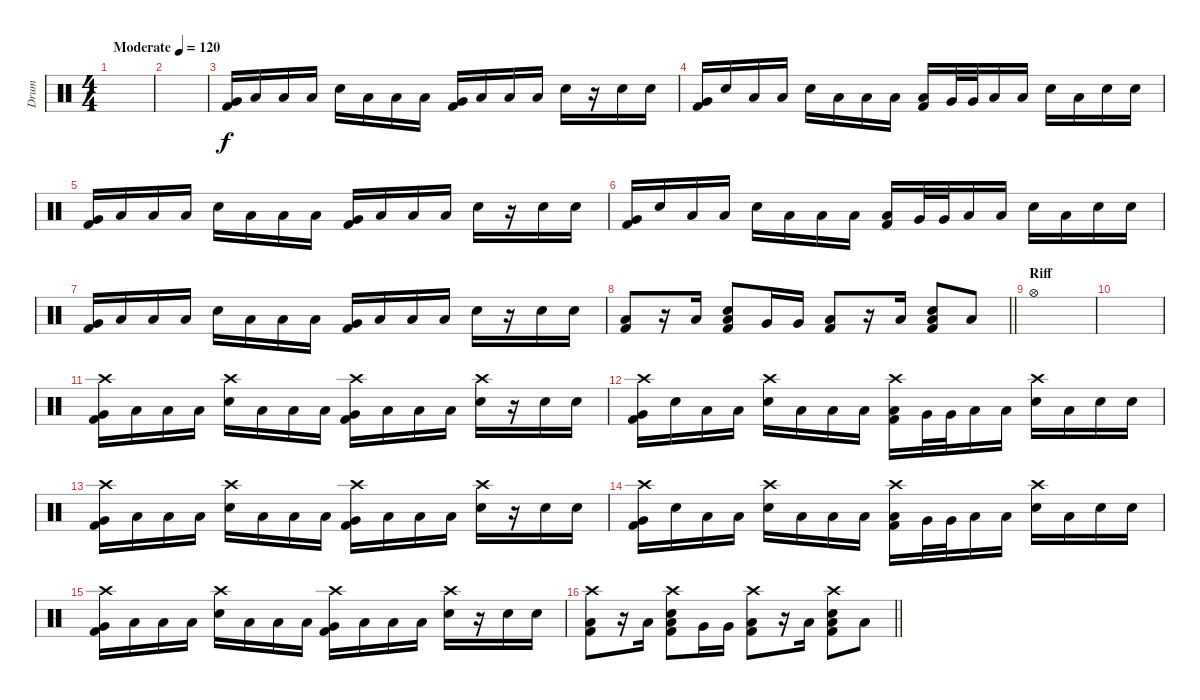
\track ("Drum" "Drum") {instrument percussion}
\staff {score}
\articulation defaults
\ts (4 4)
\tempo (120 "Moderate")
\clef neutral
\ks c
|
|
("Very Low Tom (hit)" "Kick (hit) 2").16 "Low Floor Tom (hit)".16 "Low Floor Tom (hit)".16 "Low Floor Tom (hit)".16 "Snare (hit) 2".16 "Low Floor Tom (hit)".16 "Low Floor Tom (hit)".16 "Low Floor Tom (hit)".16 ("Very Low Tom (hit)" "Kick (hit) 2").16 "Low Floor Tom (hit)".16 "Low Floor Tom (hit)".16 "Low Floor Tom (hit)".16 "Snare (hit) 2".16 r.16 "Snare (hit) 2".16 "Snare (hit) 2".16 |
("Very Low Tom (hit)" "Kick (hit) 2").16 "Snare (hit) 2".16 "Low Floor Tom (hit)".16 "Low Floor Tom (hit)".16 "Snare (hit) 2".16 "Low Floor Tom (hit)".16 "Low Floor Tom (hit)".16 "Low Floor Tom (hit)".16 ("Low Floor Tom (hit)" "Kick (hit) 2").16 "Very Low Tom (hit)".32 "Very Low Tom (hit)".32 "Low Floor Tom (hit)".16 "Low Floor Tom (hit)".16 "Snare (hit) 2".16 "Low Floor Tom (hit)".16 "Snare (hit) 2".16 "Snare (hit) 2".16 |
("Very Low Tom (hit)" "Kick (hit) 2").16 "Low Floor Tom (hit)".16 "Low Floor Tom (hit)".16 "Low Floor Tom (hit)".16 "Snare (hit) 2".16 "Low Floor Tom (hit)".16 "Low Floor Tom (hit)".16 "Low Floor Tom (hit)".16 ("Very Low Tom (hit)" "Kick (hit) 2").16 "Low Floor Tom (hit)".16 "Low Floor Tom (hit)".16 "Low Floor Tom (hit)".16 "Snare (hit) 2".16 r.16 "Snare (hit) 2".16 "Snare (hit) 2".16 |
("Very Low Tom (hit)" "Kick (hit) 2").16 "Snare (hit) 2".16 "Low Floor Tom (hit)".16 "Low Floor Tom (hit)".16 "Snare (hit) 2".16 "Low Floor Tom (hit)".16 "Low Floor Tom (hit)".16 "Low Floor Tom (hit)".16 ("Low Floor Tom (hit)" "Kick (hit) 2").16 "Very Low Tom (hit)".32 "Very Low Tom (hit)".32 "Low Floor Tom (hit)".16 "Low Floor Tom (hit)".16 "Snare (hit) 2".16 "Low Floor Tom (hit)".16 "Snare (hit) 2".16 "Snare (hit) 2".16 |
("Very Low Tom (hit)" "Kick (hit) 2").16 "Low Floor Tom (hit)".16 "Low Floor Tom (hit)".16 "Low Floor Tom (hit)".16 "Snare (hit) 2".16 "Low Floor Tom (hit)".16 "Low Floor Tom (hit)".16 "Low Floor Tom (hit)".16 ("Very Low Tom (hit)" "Kick (hit) 2").16 "Low Floor Tom (hit)".16 "Low Floor Tom (hit)".16 "Low Floor Tom (hit)".16 "Snare (hit) 2".16 r.16 "Snare (hit) 2".16 "Snare (hit) 2".16 |
\barLineRight lightlight
("Low Floor Tom (hit)" "Kick (hit) 2").8 r.16 "Low Floor Tom (hit)".16 ("Snare (hit) 2" "Low Tom (hit)" "Kick (hit) 2").8 "Very Low Tom (hit)".16 "Very Low Tom (hit)".16 ("Low Floor Tom (hit)" "Kick (hit) 2").8 r.16 "Low Floor Tom (hit)".16 ("Snare (hit) 2" "Low Tom (hit)" "Kick (hit) 2").8 "Low Floor Tom (hit)".8 |
\section ("" "Riff")
"Hi-Hat (open)".1 |
|
("Crash high (hit)" "Very Low Tom (hit)" "Kick (hit) 2").16 "Low Floor Tom (hit)".16 "Low Floor Tom (hit)".16 "Low Floor Tom (hit)".16 ("Crash high (hit)" "Snare (hit) 2").16 "Low Floor Tom (hit)".16 "Low Floor Tom (hit)".16 "Low Floor Tom (hit)".16 ("Crash high (hit)" "Very Low Tom (hit)" "Kick (hit) 2").16 "Low Floor Tom (hit)".16 "Low Floor Tom (hit)".16 "Low Floor Tom (hit)".16 ("Crash high (hit)" "Snare (hit) 2").16 r.16 "Snare (hit) 2".16 "Snare (hit) 2".16 |
("Crash high (hit)" "Very Low Tom (hit)" "Kick (hit) 2").16 "Snare (hit) 2".16 "Low Floor Tom (hit)".16 "Low Floor Tom (hit)".16 ("Crash high (hit)" "Snare (hit) 2").16 "Low Floor Tom (hit)".16 "Low Floor Tom (hit)".16 "Low Floor Tom (hit)".16 ("Crash high (hit)" "Low Floor Tom (hit)" "Kick (hit) 2").16 "Very Low Tom (hit)".32 "Very Low Tom (hit)".32 "Low Floor Tom (hit)".16 "Low Floor Tom (hit)".16 ("Crash high (hit)" "Snare (hit) 2").16 "Low Floor Tom (hit)".16 "Snare (hit) 2".16 "Snare (hit) 2".16 |
("Crash high (hit)" "Very Low Tom (hit)" "Kick (hit) 2").16 "Low Floor Tom (hit)".16 "Low Floor Tom (hit)".16 "Low Floor Tom (hit)".16 ("Crash high (hit)" "Snare (hit) 2").16 "Low Floor Tom (hit)".16 "Low Floor Tom (hit)".16 "Low Floor Tom (hit)".16 ("Crash high (hit)" "Very Low Tom (hit)" "Kick (hit) 2").16 "Low Floor Tom (hit)".16 "Low Floor Tom (hit)".16 "Low Floor Tom (hit)".16 ("Crash high (hit)" "Snare (hit) 2").16 r.16 "Snare (hit) 2".16 "Snare (hit) 2".16 |
("Crash high (hit)" "Very Low Tom (hit)" "Kick (hit) 2").16 "Snare (hit) 2".16 "Low Floor Tom (hit)".16 "Low Floor Tom (hit)".16 ("Crash high (hit)" "Snare (hit) 2").16 "Low Floor Tom (hit)".16 "Low Floor Tom (hit)".16 "Low Floor Tom (hit)".16 ("Crash high (hit)" "Low Floor Tom (hit)" "Kick (hit) 2").16 "Very Low Tom (hit)".32 "Very Low Tom (hit)".32 "Low Floor Tom (hit)".16 "Low Floor Tom (hit)".16 ("Crash high (hit)" "Snare (hit) 2").16 "Low Floor Tom (hit)".16 "Snare (hit) 2".16 "Snare (hit) 2".16 |
("Crash high (hit)" "Very Low Tom (hit)" "Kick (hit) 2").16 "Low Floor Tom (hit)".16 "Low Floor Tom (hit)".16 "Low Floor Tom (hit)".16 ("Crash high (hit)" "Snare (hit) 2").16 "Low Floor Tom (hit)".16 "Low Floor Tom (hit)".16 "Low Floor Tom (hit)".16 ("Crash high (hit)" "Very Low Tom (hit)" "Kick (hit) 2").16 "Low Floor Tom (hit)".16 "Low Floor Tom (hit)".16 "Low Floor Tom (hit)".16 ("Crash high (hit)" "Snare (hit) 2").16 r.16 "Snare (hit) 2".16 "Snare (hit) 2".16 |
\barLineRight lightlight
("Crash high (hit)" "Low Floor Tom (hit)" "Kick (hit) 2").8 r.16 "Low Floor Tom (hit)".16 ("Crash high (hit)" "Snare (hit) 2" "Low Tom (hit)" "Kick (hit) 2").8 "Very Low Tom (hit)".16 "Very Low Tom (hit)".16 ("Crash high (hit)" "Low Floor Tom (hit)" "Kick (hit) 2").8 r.16 "Low Floor Tom (hit)".16 ("Crash high (hit)" "Snare (hit) 2" "Low Tom (hit)" "Kick (hit) 2").8 "Low Floor Tom (hit)".8
